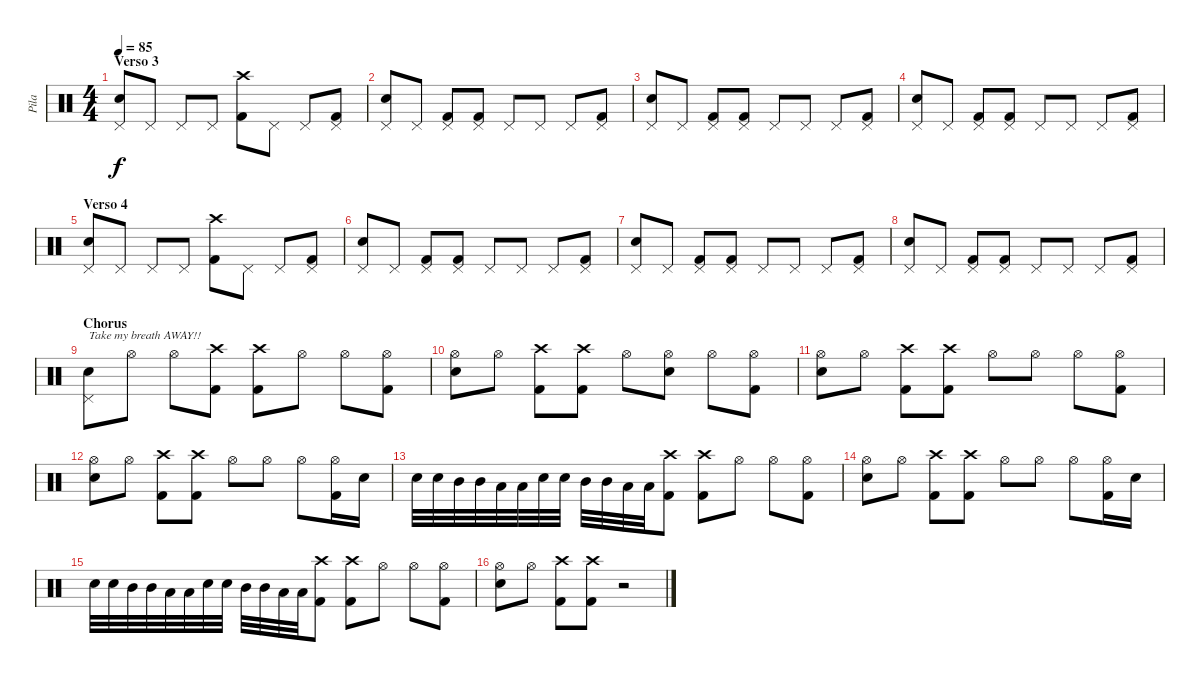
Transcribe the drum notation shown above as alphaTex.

\track ("Pila" "Pila") {instrument percussion}
\staff {score}
\articulation defaults
\ts (4 4)
\section ("" "Verso 3")
\tempo 85
\clef neutral
\ks c
("Pedal Hi-Hat (hit)" "Electric Snare (hit)").8{dy f} "Pedal Hi-Hat (hit)".8 "Pedal Hi-Hat (hit)".8 "Pedal Hi-Hat (hit)".8 ("Crash high (hit)" "Kick (hit) 2").8 "Pedal Hi-Hat (hit)".8 "Pedal Hi-Hat (hit)".8 ("Pedal Hi-Hat (hit)" "Kick (hit) 2").8 |
("Pedal Hi-Hat (hit)" "Electric Snare (hit)").8 "Pedal Hi-Hat (hit)".8 ("Pedal Hi-Hat (hit)" "Kick (hit) 2").8 ("Pedal Hi-Hat (hit)" "Kick (hit) 2").8 "Pedal Hi-Hat (hit)".8 "Pedal Hi-Hat (hit)".8 "Pedal Hi-Hat (hit)".8 ("Pedal Hi-Hat (hit)" "Kick (hit) 2").8 |
("Pedal Hi-Hat (hit)" "Electric Snare (hit)").8 "Pedal Hi-Hat (hit)".8 ("Pedal Hi-Hat (hit)" "Kick (hit) 2").8 ("Pedal Hi-Hat (hit)" "Kick (hit) 2").8 "Pedal Hi-Hat (hit)".8 "Pedal Hi-Hat (hit)".8 "Pedal Hi-Hat (hit)".8 ("Pedal Hi-Hat (hit)" "Kick (hit) 2").8 |
("Pedal Hi-Hat (hit)" "Electric Snare (hit)").8 "Pedal Hi-Hat (hit)".8 ("Pedal Hi-Hat (hit)" "Kick (hit) 2").8 ("Pedal Hi-Hat (hit)" "Kick (hit) 2").8 "Pedal Hi-Hat (hit)".8 "Pedal Hi-Hat (hit)".8 "Pedal Hi-Hat (hit)".8 ("Pedal Hi-Hat (hit)" "Kick (hit) 2").8 |
\section ("" "Verso 4")
("Pedal Hi-Hat (hit)" "Electric Snare (hit)").8 "Pedal Hi-Hat (hit)".8 "Pedal Hi-Hat (hit)".8 "Pedal Hi-Hat (hit)".8 ("Crash high (hit)" "Kick (hit) 2").8 "Pedal Hi-Hat (hit)".8 "Pedal Hi-Hat (hit)".8 ("Pedal Hi-Hat (hit)" "Kick (hit) 2").8 |
("Pedal Hi-Hat (hit)" "Electric Snare (hit)").8 "Pedal Hi-Hat (hit)".8 ("Pedal Hi-Hat (hit)" "Kick (hit) 2").8 ("Pedal Hi-Hat (hit)" "Kick (hit) 2").8 "Pedal Hi-Hat (hit)".8 "Pedal Hi-Hat (hit)".8 "Pedal Hi-Hat (hit)".8 ("Pedal Hi-Hat (hit)" "Kick (hit) 2").8 |
("Pedal Hi-Hat (hit)" "Electric Snare (hit)").8 "Pedal Hi-Hat (hit)".8 ("Pedal Hi-Hat (hit)" "Kick (hit) 2").8 ("Pedal Hi-Hat (hit)" "Kick (hit) 2").8 "Pedal Hi-Hat (hit)".8 "Pedal Hi-Hat (hit)".8 "Pedal Hi-Hat (hit)".8 ("Pedal Hi-Hat (hit)" "Kick (hit) 2").8 |
("Pedal Hi-Hat (hit)" "Electric Snare (hit)").8 "Pedal Hi-Hat (hit)".8 ("Pedal Hi-Hat (hit)" "Kick (hit) 2").8 ("Pedal Hi-Hat (hit)" "Kick (hit) 2").8 "Pedal Hi-Hat (hit)".8 "Pedal Hi-Hat (hit)".8 "Pedal Hi-Hat (hit)".8 ("Pedal Hi-Hat (hit)" "Kick (hit) 2").8 |
\section ("" "Chorus")
("Pedal Hi-Hat (hit)" "Electric Snare (hit)").8{txt "Take my breath AWAY!!"} "Hi-Hat (open)".8 "Hi-Hat (open)".8 ("Crash high (hit)" "Kick (hit) 2").8 ("Crash high (hit)" "Kick (hit) 2").8 "Hi-Hat (open)".8 "Hi-Hat (open)".8 ("Hi-Hat (open)" "Kick (hit) 2").8 |
("Hi-Hat (open)" "Electric Snare (hit)").8 "Hi-Hat (open)".8 ("Crash high (hit)" "Kick (hit) 2").8 ("Crash high (hit)" "Kick (hit) 2").8 "Hi-Hat (open)".8 ("Hi-Hat (open)" "Electric Snare (hit)").8 "Hi-Hat (open)".8 ("Hi-Hat (open)" "Kick (hit) 2").8 |
("Hi-Hat (open)" "Electric Snare (hit)").8 "Hi-Hat (open)".8 ("Crash high (hit)" "Kick (hit) 2").8 ("Crash high (hit)" "Kick (hit) 2").8 "Hi-Hat (open)".8 "Hi-Hat (open)".8 "Hi-Hat (open)".8 ("Hi-Hat (open)" "Kick (hit) 2").8 |
("Hi-Hat (open)" "Electric Snare (hit)").8 "Hi-Hat (open)".8 ("Crash high (hit)" "Kick (hit) 2").8 ("Crash high (hit)" "Kick (hit) 2").8 "Hi-Hat (open)".8 "Hi-Hat (open)".8 "Hi-Hat (open)".8 ("Hi-Hat (open)" "Kick (hit) 2").16 "Electric Snare (hit)".16 |
"Electric Snare (hit)".32 "Electric Snare (hit)".32 "Mid Tom (hit)".32 "Mid Tom (hit)".32 "Low Tom (hit)".32 "Low Tom (hit)".32 "Electric Snare (hit)".32 "Electric Snare (hit)".32 "Mid Tom (hit)".32 "Mid Tom (hit)".32 "Low Tom (hit)".32 "Low Tom (hit)".32 ("Crash high (hit)" "Kick (hit) 2").8 ("Crash high (hit)" "Kick (hit) 2").8 "Hi-Hat (open)".8 "Hi-Hat (open)".8 ("Hi-Hat (open)" "Kick (hit) 2").8 |
("Hi-Hat (open)" "Electric Snare (hit)").8 "Hi-Hat (open)".8 ("Crash high (hit)" "Kick (hit) 2").8 ("Crash high (hit)" "Kick (hit) 2").8 "Hi-Hat (open)".8 "Hi-Hat (open)".8 "Hi-Hat (open)".8 ("Hi-Hat (open)" "Kick (hit) 2").16 "Electric Snare (hit)".16 |
"Electric Snare (hit)".32 "Electric Snare (hit)".32 "Mid Tom (hit)".32 "Mid Tom (hit)".32 "Low Tom (hit)".32 "Low Tom (hit)".32 "Electric Snare (hit)".32 "Electric Snare (hit)".32 "Mid Tom (hit)".32 "Mid Tom (hit)".32 "Low Tom (hit)".32 "Low Tom (hit)".32 ("Crash high (hit)" "Kick (hit) 2").8 ("Crash high (hit)" "Kick (hit) 2").8 "Hi-Hat (open)".8 "Hi-Hat (open)".8 ("Hi-Hat (open)" "Kick (hit) 2").8 |
("Hi-Hat (open)" "Electric Snare (hit)").8 "Hi-Hat (open)".8 ("Crash high (hit)" "Kick (hit) 2").8 ("Crash high (hit)" "Kick (hit) 2").8 r.2
